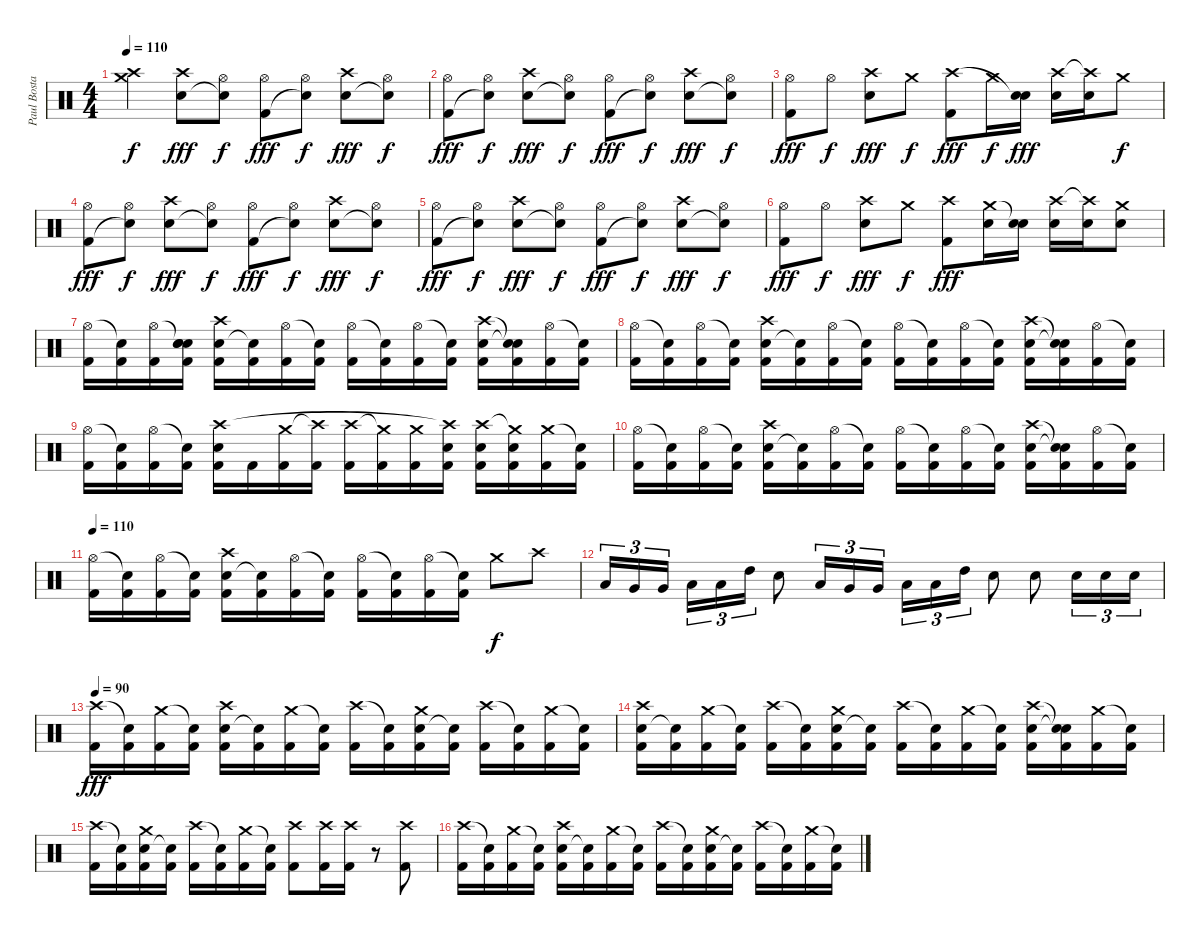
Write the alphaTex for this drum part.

\track ("Paul Bostaph" "Paul Bosta") {instrument percussion}
\staff {score}
\articulation defaults
\ts (4 4)
\tempo 110
\clef neutral
\ks c
("Crash high (hit)" "Crash medium (hit)").4{dy f} ("Snare (hit) 2" "Crash high (hit)").8{dy fff} ("Snare (hit)"{t} "Hi-Hat (open)").8{dy f} ("Kick (hit) 2" "Hi-Hat (open)").8{dy fff} ("Snare (hit)"{t} "Hi-Hat (open)").8{dy f} ("Snare (hit) 2" "Crash high (hit)").8{dy fff} ("Snare (hit)"{t} "Hi-Hat (open)").8{dy f} |
("Kick (hit) 2" "Hi-Hat (open)").8{dy fff} ("Snare (hit)"{t} "Hi-Hat (open)").8{dy f} ("Snare (hit) 2" "Crash high (hit)").8{dy fff} ("Snare (hit)"{t} "Hi-Hat (open)").8{dy f} ("Kick (hit) 2" "Hi-Hat (open)").8{dy fff} ("Snare (hit)"{t} "Hi-Hat (open)").8{dy f} ("Snare (hit) 2" "Crash high (hit)").8{dy fff} ("Snare (hit)"{t} "Hi-Hat (open)").8{dy f} |
("Kick (hit) 2" "Hi-Hat (open)").8{dy fff} "Hi-Hat (open)".8{dy f} ("Snare (hit) 2" "Crash high (hit)").8{dy fff} "Crash medium (hit)".8{dy f} ("Kick (hit) 2" "Crash high (hit)").8{dy fff} "Crash medium (hit)".16{dy f} ("Snare (hit) 2" "Snare (hit)"{t}).16{dy fff} ("Snare (hit) 2" "Crash high (hit)").16 ("Snare (hit) 2" "Crash high (hit)"{t}).16 "Crash medium (hit)".8{dy f} |
("Kick (hit) 2" "Hi-Hat (open)").8{dy fff} ("Snare (hit)"{t} "Hi-Hat (open)").8{dy f} ("Snare (hit) 2" "Crash high (hit)").8{dy fff} ("Snare (hit)"{t} "Hi-Hat (open)").8{dy f} ("Kick (hit) 2" "Hi-Hat (open)").8{dy fff} ("Snare (hit)"{t} "Hi-Hat (open)").8{dy f} ("Snare (hit) 2" "Crash high (hit)").8{dy fff} ("Snare (hit)"{t} "Hi-Hat (open)").8{dy f} |
("Kick (hit) 2" "Hi-Hat (open)").8{dy fff} ("Snare (hit)"{t} "Hi-Hat (open)").8{dy f} ("Snare (hit) 2" "Crash high (hit)").8{dy fff} ("Snare (hit)"{t} "Hi-Hat (open)").8{dy f} ("Kick (hit) 2" "Hi-Hat (open)").8{dy fff} ("Snare (hit)"{t} "Hi-Hat (open)").8{dy f} ("Snare (hit) 2" "Crash high (hit)").8{dy fff} ("Snare (hit)"{t} "Hi-Hat (open)").8{dy f} |
("Kick (hit) 2" "Hi-Hat (open)").8{dy fff} "Hi-Hat (open)".8{dy f} ("Snare (hit) 2" "Crash high (hit)").8{dy fff} "Crash medium (hit)".8{dy f} ("Kick (hit) 2" "Crash high (hit)").8{dy fff} ("Snare (hit) 2" "Crash medium (hit)").16 ("Snare (hit) 2" "Snare (hit)"{t}).16 ("Snare (hit) 2" "Crash high (hit)").16 ("Snare (hit) 2" "Crash high (hit)"{t}).16 ("Snare (hit) 2" "Crash medium (hit)").8 |
("Kick (hit) 2" "Hi-Hat (open)").16 ("Kick (hit) 2" "Snare (hit)"{t}).16 ("Kick (hit) 2" "Hi-Hat (open)").16 ("Kick (hit) 2" "Snare (hit)"{t} "Snare (hit)" "Snare (hit)").16 ("Kick (hit) 2" "Snare (hit) 2" "Crash high (hit)").16 ("Kick (hit) 2" "Snare (hit)"{t}).16 ("Kick (hit) 2" "Hi-Hat (open)").16 ("Kick (hit) 2" "Snare (hit)"{t}).16 ("Kick (hit) 2" "Hi-Hat (open)").16 ("Kick (hit) 2" "Snare (hit)"{t}).16 ("Kick (hit) 2" "Hi-Hat (open)").16 ("Kick (hit) 2" "Snare (hit)"{t}).16 ("Kick (hit) 2" "Snare (hit) 2" "Crash high (hit)").16 ("Kick (hit) 2" "Snare (hit)"{t} "Snare (hit)"{t}).16 ("Kick (hit) 2" "Hi-Hat (open)").16 ("Kick (hit) 2" "Snare (hit)"{t}).16 |
("Kick (hit) 2" "Hi-Hat (open)").16 ("Kick (hit) 2" "Snare (hit)"{t}).16 ("Kick (hit) 2" "Hi-Hat (open)").16 ("Kick (hit) 2" "Snare (hit)"{t}).16 ("Kick (hit) 2" "Snare (hit) 2" "Crash high (hit)").16 ("Kick (hit) 2" "Snare (hit)"{t}).16 ("Kick (hit) 2" "Hi-Hat (open)").16 ("Kick (hit) 2" "Snare (hit)"{t}).16 ("Kick (hit) 2" "Hi-Hat (open)").16 ("Kick (hit) 2" "Snare (hit)"{t}).16 ("Kick (hit) 2" "Hi-Hat (open)").16 ("Kick (hit) 2" "Snare (hit)"{t}).16 ("Kick (hit) 2" "Snare (hit) 2" "Crash high (hit)").16 ("Kick (hit) 2" "Snare (hit)"{t} "Snare (hit)"{t}).16 ("Kick (hit) 2" "Hi-Hat (open)").16 ("Kick (hit) 2" "Snare (hit)"{t}).16 |
("Kick (hit) 2" "Hi-Hat (open)").16 ("Kick (hit) 2" "Snare (hit)"{t}).16 ("Kick (hit) 2" "Hi-Hat (open)").16 ("Kick (hit) 2" "Snare (hit)"{t}).16 ("Kick (hit) 2" "Snare (hit) 2" "Crash high (hit)").16 "Kick (hit) 2".16 ("Kick (hit) 2" "Crash medium (hit)").16 ("Kick (hit) 2" "Crash high (hit)"{t}).16 ("Kick (hit) 2" "Crash high (hit)").16 ("Kick (hit) 2" "Crash medium (hit)"{t}).16 ("Kick (hit) 2" "Crash medium (hit)").16 ("Kick (hit) 2" "Snare (hit) 2" "Crash high (hit)"{t}).16 ("Kick (hit) 2" "Snare (hit) 2" "Crash high (hit)").16 ("Kick (hit) 2" "Snare (hit) 2" "Crash medium (hit)"{t}).16 ("Kick (hit) 2" "Crash medium (hit)").16 ("Kick (hit) 2" "Snare (hit)"{t}).16 |
("Kick (hit) 2" "Hi-Hat (open)").16 ("Kick (hit) 2" "Snare (hit)"{t}).16 ("Kick (hit) 2" "Hi-Hat (open)").16 ("Kick (hit) 2" "Snare (hit)"{t}).16 ("Kick (hit) 2" "Snare (hit) 2" "Crash high (hit)").16 ("Kick (hit) 2" "Snare (hit)"{t}).16 ("Kick (hit) 2" "Hi-Hat (open)").16 ("Kick (hit) 2" "Snare (hit)"{t}).16 ("Kick (hit) 2" "Hi-Hat (open)").16 ("Kick (hit) 2" "Snare (hit)"{t}).16 ("Kick (hit) 2" "Hi-Hat (open)").16 ("Kick (hit) 2" "Snare (hit)"{t}).16 ("Kick (hit) 2" "Snare (hit) 2" "Crash high (hit)").16 ("Kick (hit) 2" "Snare (hit)"{t} "Snare (hit)"{t}).16 ("Kick (hit) 2" "Hi-Hat (open)").16 ("Kick (hit) 2" "Snare (hit)"{t}).16 |
\tempo 110
("Kick (hit) 2" "Hi-Hat (open)").16 ("Kick (hit) 2" "Snare (hit)"{t}).16 ("Kick (hit) 2" "Hi-Hat (open)").16 ("Kick (hit) 2" "Snare (hit)"{t}).16 ("Kick (hit) 2" "Snare (hit) 2" "Crash high (hit)").16 ("Kick (hit) 2" "Snare (hit)"{t}).16 ("Kick (hit) 2" "Hi-Hat (open)").16 ("Kick (hit) 2" "Snare (hit)"{t}).16 ("Kick (hit) 2" "Hi-Hat (open)").16 ("Kick (hit) 2" "Snare (hit)"{t}).16 ("Kick (hit) 2" "Hi-Hat (open)").16 ("Kick (hit) 2" "Snare (hit)"{t}).16 "Crash medium (hit)".8{dy f} "Crash high (hit)".8 |
"Low Floor Tom (hit)".16{tu (3 2)} "Very Low Tom (hit)".16{tu (3 2)} "Very Low Tom (hit)".16{tu (3 2)} "Low Tom (hit)".16{tu (3 2)} "Low Tom (hit)".16{tu (3 2)} "High Tom (hit)".16{tu (3 2)} "Snare (hit) 2".8 "Low Floor Tom (hit)".16{tu (3 2)} "Very Low Tom (hit)".16{tu (3 2)} "Very Low Tom (hit)".16{tu (3 2)} "Low Tom (hit)".16{tu (3 2)} "Low Tom (hit)".16{tu (3 2)} "High Tom (hit)".16{tu (3 2)} "Snare (hit) 2".8 "Snare (hit) 2".8 "Snare (hit) 2".16{tu (3 2)} "Snare (hit) 2".16{tu (3 2)} "Snare (hit) 2".16{tu (3 2)} |
\tempo 90
("Kick (hit) 2" "Crash high (hit)").16{dy fff} ("Kick (hit) 2" "Snare (hit)"{t}).16 ("Kick (hit) 2" "Crash medium (hit)").16 ("Kick (hit) 2" "Snare (hit)"{t}).16 ("Kick (hit) 2" "Snare (hit) 2" "Crash high (hit)").16 ("Kick (hit) 2" "Snare (hit)"{t}).16 ("Kick (hit) 2" "Crash medium (hit)").16 ("Kick (hit) 2" "Snare (hit)"{t}).16 ("Kick (hit) 2" "Crash high (hit)").16 ("Kick (hit) 2" "Snare (hit)"{t}).16 ("Kick (hit) 2" "Snare (hit) 2" "Crash medium (hit)").16 ("Kick (hit) 2" "Snare (hit)"{t}).16 ("Kick (hit) 2" "Crash high (hit)").16 ("Kick (hit) 2" "Snare (hit)"{t}).16 ("Kick (hit) 2" "Crash medium (hit)").16 ("Kick (hit) 2" "Snare (hit)"{t}).16 |
("Kick (hit) 2" "Snare (hit) 2" "Crash high (hit)").16 ("Kick (hit) 2" "Snare (hit)"{t}).16 ("Kick (hit) 2" "Crash medium (hit)").16 ("Kick (hit) 2" "Snare (hit)"{t}).16 ("Kick (hit) 2" "Crash high (hit)").16 ("Kick (hit) 2" "Snare (hit)"{t}).16 ("Kick (hit) 2" "Snare (hit) 2" "Crash medium (hit)").16 ("Kick (hit) 2" "Snare (hit)"{t}).16 ("Kick (hit) 2" "Crash high (hit)").16 ("Kick (hit) 2" "Snare (hit)"{t}).16 ("Kick (hit) 2" "Crash medium (hit)").16 ("Kick (hit) 2" "Snare (hit)"{t}).16 ("Kick (hit) 2" "Snare (hit) 2" "Crash high (hit)").16 ("Kick (hit) 2" "Snare (hit)"{t} "Snare (hit)"{t}).16 ("Kick (hit) 2" "Crash medium (hit)").16 ("Kick (hit) 2" "Snare (hit)"{t}).16 |
("Kick (hit) 2" "Crash high (hit)").16 ("Kick (hit) 2" "Snare (hit)"{t}).16 ("Kick (hit) 2" "Snare (hit) 2" "Crash medium (hit)").16 ("Kick (hit) 2" "Snare (hit)"{t}).16 ("Kick (hit) 2" "Crash high (hit)").16 ("Kick (hit) 2" "Snare (hit)"{t}).16 ("Kick (hit) 2" "Crash medium (hit)").16 ("Kick (hit) 2" "Snare (hit)"{t}).16 ("Kick (hit) 2" "Crash high (hit)").8 ("Kick (hit) 2" "Crash high (hit)").16 ("Kick (hit) 2" "Crash high (hit)").16 r.8 ("Kick (hit) 2" "Crash high (hit)").8 |
("Kick (hit) 2" "Crash high (hit)").16 ("Kick (hit) 2" "Snare (hit)"{t}).16 ("Kick (hit) 2" "Crash medium (hit)").16 ("Kick (hit) 2" "Snare (hit)"{t}).16 ("Kick (hit) 2" "Snare (hit) 2" "Crash high (hit)").16 ("Kick (hit) 2" "Snare (hit)"{t}).16 ("Kick (hit) 2" "Crash medium (hit)").16 ("Kick (hit) 2" "Snare (hit)"{t}).16 ("Kick (hit) 2" "Crash high (hit)").16 ("Kick (hit) 2" "Snare (hit)"{t}).16 ("Kick (hit) 2" "Snare (hit) 2" "Crash medium (hit)").16 ("Kick (hit) 2" "Snare (hit)"{t}).16 ("Kick (hit) 2" "Crash high (hit)").16 ("Kick (hit) 2" "Snare (hit)"{t}).16 ("Kick (hit) 2" "Crash medium (hit)").16 ("Kick (hit) 2" "Snare (hit)"{t}).16
